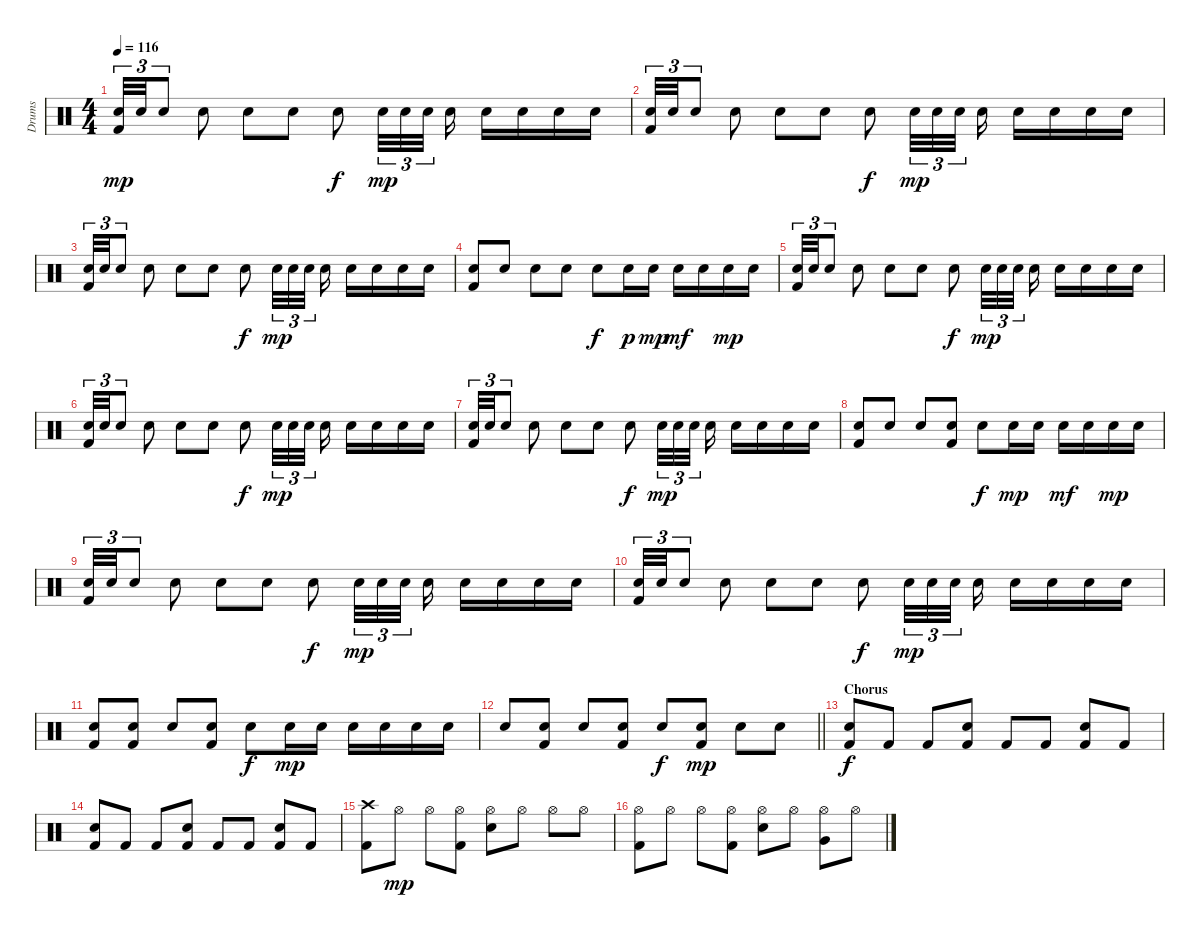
\track ("Drums" "Drums") {instrument percussion}
\staff {score}
\articulation defaults
\ts (4 4)
\tempo 116
\clef neutral
\ks c
("Kick (hit) 2" "Snare (hit) 2").32{tu (3 2) dy mp} "Snare (hit) 2".32{tu (3 2)} "Snare (hit) 2".8{tu (3 2)} "Snare (hit) 2".8 "Snare (hit) 2".8 "Snare (hit) 2".8 "Snare (hit) 2".8{dy f} "Snare (hit) 2".32{tu (3 2) dy mp} "Snare (hit) 2".32{tu (3 2)} "Snare (hit) 2".32{tu (3 2)} "Snare (hit) 2".16 "Snare (hit) 2".16 "Snare (hit) 2".16 "Snare (hit) 2".16 "Snare (hit) 2".16 |
("Kick (hit) 2" "Snare (hit) 2").32{tu (3 2)} "Snare (hit) 2".32{tu (3 2)} "Snare (hit) 2".8{tu (3 2)} "Snare (hit) 2".8 "Snare (hit) 2".8 "Snare (hit) 2".8 "Snare (hit) 2".8{dy f} "Snare (hit) 2".32{tu (3 2) dy mp} "Snare (hit) 2".32{tu (3 2)} "Snare (hit) 2".32{tu (3 2)} "Snare (hit) 2".16 "Snare (hit) 2".16 "Snare (hit) 2".16 "Snare (hit) 2".16 "Snare (hit) 2".16 |
("Kick (hit) 2" "Snare (hit) 2").32{tu (3 2)} "Snare (hit) 2".32{tu (3 2)} "Snare (hit) 2".8{tu (3 2)} "Snare (hit) 2".8 "Snare (hit) 2".8 "Snare (hit) 2".8 "Snare (hit) 2".8{dy f} "Snare (hit) 2".32{tu (3 2) dy mp} "Snare (hit) 2".32{tu (3 2)} "Snare (hit) 2".32{tu (3 2)} "Snare (hit) 2".16 "Snare (hit) 2".16 "Snare (hit) 2".16 "Snare (hit) 2".16 "Snare (hit) 2".16 |
("Kick (hit) 2" "Snare (hit) 2").8 "Snare (hit) 2".8 "Snare (hit) 2".8 "Snare (hit) 2".8 "Snare (hit) 2".8{dy f} "Snare (hit) 2".16{dy p} "Snare (hit) 2".16{dy mp} "Snare (hit) 2".16{dy mf} "Snare (hit) 2".16 "Snare (hit) 2".16{dy mp} "Snare (hit) 2".16 |
("Kick (hit) 2" "Snare (hit) 2").32{tu (3 2)} "Snare (hit) 2".32{tu (3 2)} "Snare (hit) 2".8{tu (3 2)} "Snare (hit) 2".8 "Snare (hit) 2".8 "Snare (hit) 2".8 "Snare (hit) 2".8{dy f} "Snare (hit) 2".32{tu (3 2) dy mp} "Snare (hit) 2".32{tu (3 2)} "Snare (hit) 2".32{tu (3 2)} "Snare (hit) 2".16 "Snare (hit) 2".16 "Snare (hit) 2".16 "Snare (hit) 2".16 "Snare (hit) 2".16 |
("Kick (hit) 2" "Snare (hit) 2").32{tu (3 2)} "Snare (hit) 2".32{tu (3 2)} "Snare (hit) 2".8{tu (3 2)} "Snare (hit) 2".8 "Snare (hit) 2".8 "Snare (hit) 2".8 "Snare (hit) 2".8{dy f} "Snare (hit) 2".32{tu (3 2) dy mp} "Snare (hit) 2".32{tu (3 2)} "Snare (hit) 2".32{tu (3 2)} "Snare (hit) 2".16 "Snare (hit) 2".16 "Snare (hit) 2".16 "Snare (hit) 2".16 "Snare (hit) 2".16 |
("Kick (hit) 2" "Snare (hit) 2").32{tu (3 2)} "Snare (hit) 2".32{tu (3 2)} "Snare (hit) 2".8{tu (3 2)} "Snare (hit) 2".8 "Snare (hit) 2".8 "Snare (hit) 2".8 "Snare (hit) 2".8{dy f} "Snare (hit) 2".32{tu (3 2) dy mp} "Snare (hit) 2".32{tu (3 2)} "Snare (hit) 2".32{tu (3 2)} "Snare (hit) 2".16 "Snare (hit) 2".16 "Snare (hit) 2".16 "Snare (hit) 2".16 "Snare (hit) 2".16 |
("Kick (hit) 2" "Snare (hit) 2").8 "Snare (hit) 2".8 "Snare (hit) 2".8 ("Kick (hit) 2" "Snare (hit) 2").8 "Snare (hit) 2".8{dy f} "Snare (hit) 2".16{dy mp} "Snare (hit) 2".16 "Snare (hit) 2".16{dy mf} "Snare (hit) 2".16 "Snare (hit) 2".16{dy mp} "Snare (hit) 2".16 |
("Kick (hit) 2" "Snare (hit) 2").32{tu (3 2)} "Snare (hit) 2".32{tu (3 2)} "Snare (hit) 2".8{tu (3 2)} "Snare (hit) 2".8 "Snare (hit) 2".8 "Snare (hit) 2".8 "Snare (hit) 2".8{dy f} "Snare (hit) 2".32{tu (3 2) dy mp} "Snare (hit) 2".32{tu (3 2)} "Snare (hit) 2".32{tu (3 2)} "Snare (hit) 2".16 "Snare (hit) 2".16 "Snare (hit) 2".16 "Snare (hit) 2".16 "Snare (hit) 2".16 |
("Kick (hit) 2" "Snare (hit) 2").32{tu (3 2)} "Snare (hit) 2".32{tu (3 2)} "Snare (hit) 2".8{tu (3 2)} "Snare (hit) 2".8 "Snare (hit) 2".8 "Snare (hit) 2".8 "Snare (hit) 2".8{dy f} "Snare (hit) 2".32{tu (3 2) dy mp} "Snare (hit) 2".32{tu (3 2)} "Snare (hit) 2".32{tu (3 2)} "Snare (hit) 2".16 "Snare (hit) 2".16 "Snare (hit) 2".16 "Snare (hit) 2".16 "Snare (hit) 2".16 |
("Kick (hit) 2" "Snare (hit) 2").8 ("Kick (hit) 2" "Snare (hit) 2").8 "Snare (hit) 2".8 ("Kick (hit) 2" "Snare (hit) 2").8 "Snare (hit) 2".8{dy f} "Snare (hit) 2".16{dy mp} "Snare (hit) 2".16 "Snare (hit) 2".16 "Snare (hit) 2".16 "Snare (hit) 2".16 "Snare (hit) 2".16 |
\barLineRight lightlight "Snare (hit) 2".8
("Kick (hit) 2" "Snare (hit) 2").8 "Snare (hit) 2".8 ("Kick (hit) 2" "Snare (hit) 2").8 "Snare (hit) 2".8{dy f} ("Kick (hit) 2" "Snare (hit) 2").8{dy mp} "Snare (hit) 2".8 "Snare (hit) 2".8 |
\section ("" "Chorus")
("Kick (hit) 2" "Snare (hit) 2").8{dy f} "Kick (hit) 2".8 "Kick (hit) 2".8 ("Kick (hit) 2" "Snare (hit) 2").8 "Kick (hit) 2".8 "Kick (hit) 2".8 ("Kick (hit) 2" "Snare (hit) 2").8 "Kick (hit) 2".8 |
("Kick (hit) 2" "Snare (hit) 2").8 "Kick (hit) 2".8 "Kick (hit) 2".8 ("Kick (hit) 2" "Snare (hit) 2").8 "Kick (hit) 2".8 "Kick (hit) 2".8 ("Kick (hit) 2" "Snare (hit) 2").8 "Kick (hit) 2".8 |
("Kick (hit) 2" "Crash high (hit)").8 "Hi-Hat (open)".8{dy mp} "Hi-Hat (open)".8 ("Kick (hit) 2" "Hi-Hat (open)").8 ("Snare (hit) 2" "Hi-Hat (open)").8 "Hi-Hat (open)".8 "Hi-Hat (open)".8 "Hi-Hat (open)".8 |
("Kick (hit) 2" "Hi-Hat (open)").8 "Hi-Hat (open)".8 "Hi-Hat (open)".8 ("Kick (hit) 2" "Hi-Hat (open)").8 ("Snare (hit) 2" "Hi-Hat (open)").8 "Hi-Hat (open)".8 ("Hi-Hat (open)" "Very Low Tom (hit)").8 "Hi-Hat (open)".8
